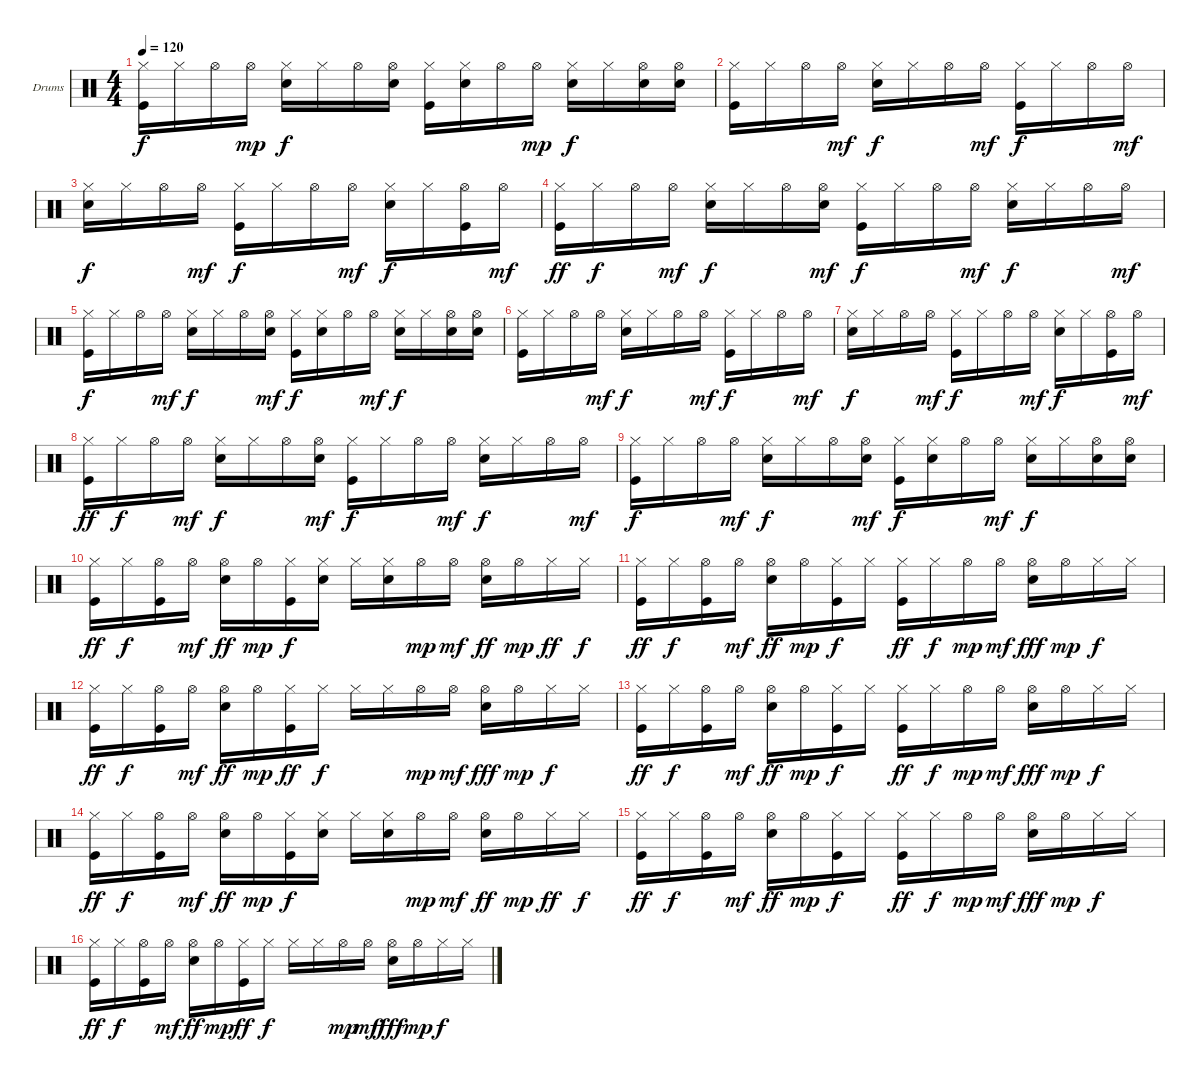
\defaultSystemsLayout 4
\bracketExtendMode groupsimilarinstruments
\firstSystemTrackNameOrientation horizontal
\otherSystemsTrackNameOrientation horizontal
\track ("Г.Гурьянов-Ударные" "Drums") {instrument percussion}
\staff {score}
\articulation defaults
\ts (4 4)
\tempo 120
\clef neutral
\ks c
("Hi-Hat (closed)" "Kick (hit)").16{dy f} "Hi-Hat (closed)".16 "Hi-Hat (open)".16 "Hi-Hat (open)".16{dy mp} ("Hi-Hat (closed)" "Snare (hit) 2").16{dy f} "Hi-Hat (closed)".16 "Hi-Hat (open)".16 ("Snare (hit) 2" "Hi-Hat (open)").16 ("Kick (hit)" "Hi-Hat (closed)").16 ("Snare (hit) 2" "Hi-Hat (closed)").16 "Hi-Hat (open)".16 "Hi-Hat (open)".16{dy mp} ("Hi-Hat (closed)" "Snare (hit) 2").16{dy f} "Hi-Hat (closed)".16 ("Snare (hit) 2" "Hi-Hat (open)").16 ("Snare (hit) 2" "Hi-Hat (open)").16 |
("Hi-Hat (closed)" "Kick (hit)").16 "Hi-Hat (closed)".16 "Hi-Hat (open)".16 "Hi-Hat (open)".16{dy mf} ("Snare (hit) 2" "Hi-Hat (closed)").16{dy f} "Hi-Hat (closed)".16 "Hi-Hat (open)".16 "Hi-Hat (open)".16{dy mf} ("Kick (hit)" "Hi-Hat (closed)").16{dy f} "Hi-Hat (closed)".16 "Hi-Hat (open)".16 "Hi-Hat (open)".16{dy mf} |
("Snare (hit) 2" "Hi-Hat (closed)").16{dy f} "Hi-Hat (closed)".16 "Hi-Hat (open)".16 "Hi-Hat (open)".16{dy mf} ("Kick (hit)" "Hi-Hat (closed)").16{dy f} "Hi-Hat (closed)".16 "Hi-Hat (open)".16 "Hi-Hat (open)".16{dy mf} ("Snare (hit) 2" "Hi-Hat (closed)").16{dy f} "Hi-Hat (closed)".16 ("Kick (hit)" "Hi-Hat (open)").16 "Hi-Hat (open)".16{dy mf} |
("Kick (hit)" "Hi-Hat (closed)").16{dy ff} "Hi-Hat (closed)".16{dy f} "Hi-Hat (open)".16 "Hi-Hat (open)".16{dy mf} ("Snare (hit) 2" "Hi-Hat (closed)").16{dy f} "Hi-Hat (closed)".16 "Hi-Hat (open)".16 ("Hi-Hat (open)" "Snare (hit) 2").16{dy mf} ("Hi-Hat (closed)" "Kick (hit)").16{dy f} "Hi-Hat (closed)".16 "Hi-Hat (open)".16 "Hi-Hat (open)".16{dy mf} ("Snare (hit) 2" "Hi-Hat (closed)").16{dy f} "Hi-Hat (closed)".16 "Hi-Hat (open)".16 "Hi-Hat (open)".16{dy mf} |
("Kick (hit)" "Hi-Hat (closed)").16{dy f} "Hi-Hat (closed)".16 "Hi-Hat (open)".16 "Hi-Hat (open)".16{dy mf} ("Snare (hit) 2" "Hi-Hat (closed)").16{dy f} "Hi-Hat (closed)".16 "Hi-Hat (open)".16 ("Hi-Hat (open)" "Snare (hit) 2").16{dy mf} ("Hi-Hat (closed)" "Kick (hit)").16{dy f} ("Snare (hit) 2" "Hi-Hat (closed)").16 "Hi-Hat (open)".16 "Hi-Hat (open)".16{dy mf} ("Snare (hit) 2" "Hi-Hat (closed)").16{dy f} "Hi-Hat (closed)".16 ("Snare (hit) 2" "Hi-Hat (open)").16 ("Snare (hit) 2" "Hi-Hat (open)").16 |
("Hi-Hat (closed)" "Kick (hit)").16 "Hi-Hat (closed)".16 "Hi-Hat (open)".16 "Hi-Hat (open)".16{dy mf} ("Snare (hit) 2" "Hi-Hat (closed)").16{dy f} "Hi-Hat (closed)".16 "Hi-Hat (open)".16 "Hi-Hat (open)".16{dy mf} ("Kick (hit)" "Hi-Hat (closed)").16{dy f} "Hi-Hat (closed)".16 "Hi-Hat (open)".16 "Hi-Hat (open)".16{dy mf} |
("Snare (hit) 2" "Hi-Hat (closed)").16{dy f} "Hi-Hat (closed)".16 "Hi-Hat (open)".16 "Hi-Hat (open)".16{dy mf} ("Kick (hit)" "Hi-Hat (closed)").16{dy f} "Hi-Hat (closed)".16 "Hi-Hat (open)".16 "Hi-Hat (open)".16{dy mf} ("Snare (hit) 2" "Hi-Hat (closed)").16{dy f} "Hi-Hat (closed)".16 ("Kick (hit)" "Hi-Hat (open)").16 "Hi-Hat (open)".16{dy mf} |
("Kick (hit)" "Hi-Hat (closed)").16{dy ff} "Hi-Hat (closed)".16{dy f} "Hi-Hat (open)".16 "Hi-Hat (open)".16{dy mf} ("Snare (hit) 2" "Hi-Hat (closed)").16{dy f} "Hi-Hat (closed)".16 "Hi-Hat (open)".16 ("Hi-Hat (open)" "Snare (hit) 2").16{dy mf} ("Hi-Hat (closed)" "Kick (hit)").16{dy f} "Hi-Hat (closed)".16 "Hi-Hat (open)".16 "Hi-Hat (open)".16{dy mf} ("Snare (hit) 2" "Hi-Hat (closed)").16{dy f} "Hi-Hat (closed)".16 "Hi-Hat (open)".16 "Hi-Hat (open)".16{dy mf} |
("Kick (hit)" "Hi-Hat (closed)").16{dy f} "Hi-Hat (closed)".16 "Hi-Hat (open)".16 "Hi-Hat (open)".16{dy mf} ("Snare (hit) 2" "Hi-Hat (closed)").16{dy f} "Hi-Hat (closed)".16 "Hi-Hat (open)".16 ("Hi-Hat (open)" "Snare (hit) 2").16{dy mf} ("Hi-Hat (closed)" "Kick (hit)").16{dy f} ("Snare (hit) 2" "Hi-Hat (closed)").16 "Hi-Hat (open)".16 "Hi-Hat (open)".16{dy mf} ("Snare (hit) 2" "Hi-Hat (closed)").16{dy f} "Hi-Hat (closed)".16 ("Snare (hit) 2" "Hi-Hat (open)").16 ("Snare (hit) 2" "Hi-Hat (open)").16 |
("Kick (hit)" "Hi-Hat (closed)").16{dy ff} "Hi-Hat (closed)".16{dy f} ("Kick (hit)" "Hi-Hat (open)").16 "Hi-Hat (open)".16{dy mf} ("Snare (hit) 2" "Hi-Hat (open)").16{dy ff} "Hi-Hat (open)".16{dy mp} ("Kick (hit)" "Hi-Hat (closed)").16{dy f} ("Snare (hit) 2" "Hi-Hat (closed)").16 "Hi-Hat (closed)".16 ("Snare (hit) 2" "Hi-Hat (closed)").16 "Hi-Hat (open)".16{dy mp} "Hi-Hat (open)".16{dy mf} ("Hi-Hat (open)" "Snare (hit) 2").16{dy ff} "Hi-Hat (open)".16{dy mp} "Hi-Hat (closed)".16{dy ff} "Hi-Hat (closed)".16{dy f} |
("Kick (hit)" "Hi-Hat (closed)").16{dy ff} "Hi-Hat (closed)".16{dy f} ("Kick (hit)" "Hi-Hat (open)").16 "Hi-Hat (open)".16{dy mf} ("Snare (hit) 2" "Hi-Hat (open)").16{dy ff} "Hi-Hat (open)".16{dy mp} ("Kick (hit)" "Hi-Hat (closed)").16{dy f} "Hi-Hat (closed)".16 ("Kick (hit)" "Hi-Hat (closed)").16{dy ff} "Hi-Hat (closed)".16{dy f} "Hi-Hat (open)".16{dy mp} "Hi-Hat (open)".16{dy mf} ("Snare (hit) 2" "Hi-Hat (open)").16{dy fff} "Hi-Hat (open)".16{dy mp} "Hi-Hat (closed)".16{dy f} "Hi-Hat (closed)".16 |
("Kick (hit)" "Hi-Hat (closed)").16{dy ff} "Hi-Hat (closed)".16{dy f} ("Kick (hit)" "Hi-Hat (open)").16 "Hi-Hat (open)".16{dy mf} ("Snare (hit) 2" "Hi-Hat (open)").16{dy ff} "Hi-Hat (open)".16{dy mp} ("Kick (hit)" "Hi-Hat (closed)").16{dy ff} "Hi-Hat (closed)".16{dy f} "Hi-Hat (closed)".16 "Hi-Hat (closed)".16 "Hi-Hat (open)".16{dy mp} "Hi-Hat (open)".16{dy mf} ("Snare (hit) 2" "Hi-Hat (open)").16{dy fff} "Hi-Hat (open)".16{dy mp} "Hi-Hat (closed)".16{dy f} "Hi-Hat (closed)".16 |
("Kick (hit)" "Hi-Hat (closed)").16{dy ff} "Hi-Hat (closed)".16{dy f} ("Kick (hit)" "Hi-Hat (open)").16 "Hi-Hat (open)".16{dy mf} ("Snare (hit) 2" "Hi-Hat (open)").16{dy ff} "Hi-Hat (open)".16{dy mp} ("Kick (hit)" "Hi-Hat (closed)").16{dy f} "Hi-Hat (closed)".16 ("Kick (hit)" "Hi-Hat (closed)").16{dy ff} "Hi-Hat (closed)".16{dy f} "Hi-Hat (open)".16{dy mp} "Hi-Hat (open)".16{dy mf} ("Snare (hit) 2" "Hi-Hat (open)").16{dy fff} "Hi-Hat (open)".16{dy mp} "Hi-Hat (closed)".16{dy f} "Hi-Hat (closed)".16 |
("Kick (hit)" "Hi-Hat (closed)").16{dy ff} "Hi-Hat (closed)".16{dy f} ("Kick (hit)" "Hi-Hat (open)").16 "Hi-Hat (open)".16{dy mf} ("Snare (hit) 2" "Hi-Hat (open)").16{dy ff} "Hi-Hat (open)".16{dy mp} ("Kick (hit)" "Hi-Hat (closed)").16{dy f} ("Snare (hit) 2" "Hi-Hat (closed)").16 "Hi-Hat (closed)".16 ("Snare (hit) 2" "Hi-Hat (closed)").16 "Hi-Hat (open)".16{dy mp} "Hi-Hat (open)".16{dy mf} ("Hi-Hat (open)" "Snare (hit) 2").16{dy ff} "Hi-Hat (open)".16{dy mp} "Hi-Hat (closed)".16{dy ff} "Hi-Hat (closed)".16{dy f} |
("Kick (hit)" "Hi-Hat (closed)").16{dy ff} "Hi-Hat (closed)".16{dy f} ("Kick (hit)" "Hi-Hat (open)").16 "Hi-Hat (open)".16{dy mf} ("Snare (hit) 2" "Hi-Hat (open)").16{dy ff} "Hi-Hat (open)".16{dy mp} ("Kick (hit)" "Hi-Hat (closed)").16{dy f} "Hi-Hat (closed)".16 ("Kick (hit)" "Hi-Hat (closed)").16{dy ff} "Hi-Hat (closed)".16{dy f} "Hi-Hat (open)".16{dy mp} "Hi-Hat (open)".16{dy mf} ("Snare (hit) 2" "Hi-Hat (open)").16{dy fff} "Hi-Hat (open)".16{dy mp} "Hi-Hat (closed)".16{dy f} "Hi-Hat (closed)".16 |
("Kick (hit)" "Hi-Hat (closed)").16{dy ff} "Hi-Hat (closed)".16{dy f} ("Kick (hit)" "Hi-Hat (open)").16 "Hi-Hat (open)".16{dy mf} ("Snare (hit) 2" "Hi-Hat (open)").16{dy ff} "Hi-Hat (open)".16{dy mp} ("Kick (hit)" "Hi-Hat (closed)").16{dy ff} "Hi-Hat (closed)".16{dy f} "Hi-Hat (closed)".16 "Hi-Hat (closed)".16 "Hi-Hat (open)".16{dy mp} "Hi-Hat (open)".16{dy mf} ("Snare (hit) 2" "Hi-Hat (open)").16{dy fff} "Hi-Hat (open)".16{dy mp} "Hi-Hat (closed)".16{dy f} "Hi-Hat (closed)".16
